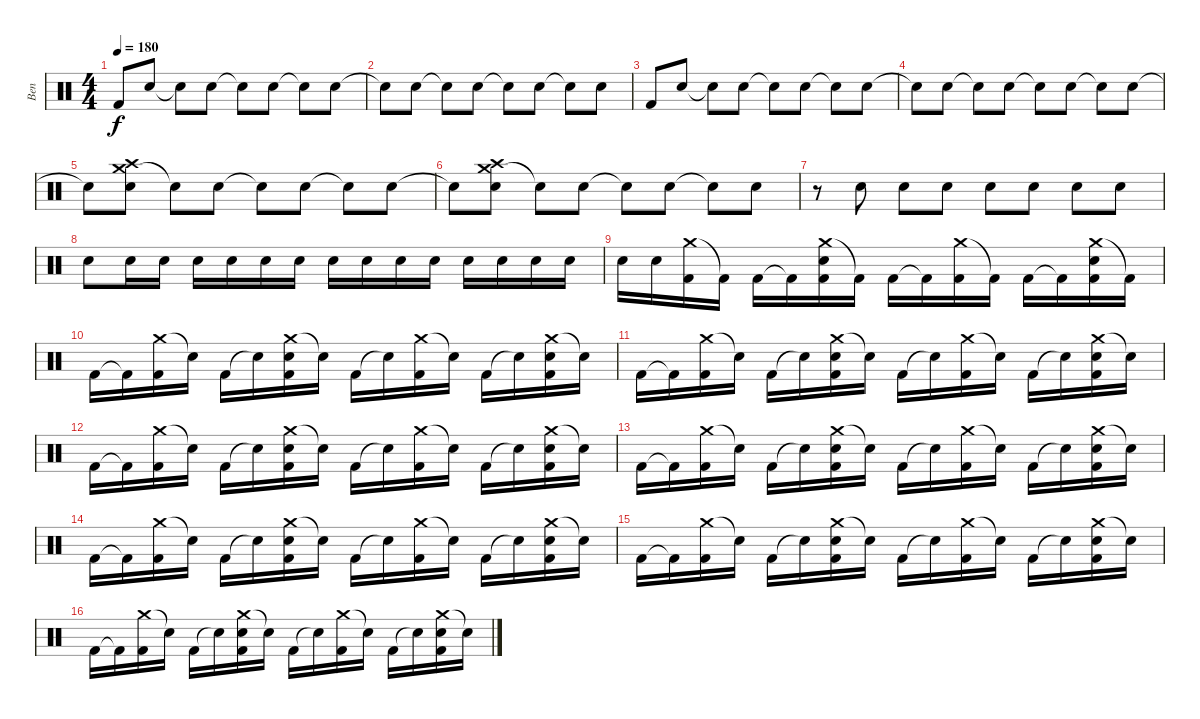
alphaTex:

\track ("Ben" "Ben") {instrument percussion}
\staff {score}
\articulation defaults
\ts (4 4)
\tempo 180
\clef neutral
\ks c "Kick (hit) 2".8{dy f} "Electric Snare (hit)".8 "Electric Snare (hit)"{t}.8 "Electric Snare (hit)".8 "Electric Snare (hit)"{t}.8 "Electric Snare (hit)".8 "Electric Snare (hit)"{t}.8 "Electric Snare (hit)".8
|
"Electric Snare (hit)"{t}.8 "Electric Snare (hit)".8 "Electric Snare (hit)"{t}.8 "Electric Snare (hit)".8 "Snare (hit)"{t}.8 "Electric Snare (hit)".8 "Snare (hit)"{t}.8 "Electric Snare (hit)".8 |
"Kick (hit) 2".8 "Electric Snare (hit)".8 "Electric Snare (hit)"{t}.8 "Electric Snare (hit)".8 "Electric Snare (hit)"{t}.8 "Electric Snare (hit)".8 "Electric Snare (hit)"{t}.8 "Electric Snare (hit)".8 |
"Electric Snare (hit)"{t}.8 "Electric Snare (hit)".8 "Electric Snare (hit)"{t}.8 "Electric Snare (hit)".8 "Snare (hit)"{t}.8 "Electric Snare (hit)".8 "Snare (hit)"{t}.8 "Electric Snare (hit)".8 |
"Electric Snare (hit)"{t}.8 ("Crash medium (hit)" "Crash high (hit)" "Electric Snare (hit)").8 "Electric Snare (hit)"{t}.8 "Electric Snare (hit)".8 "Snare (hit)"{t}.8 "Electric Snare (hit)".8 "Snare (hit)"{t}.8 "Electric Snare (hit)".8 |
"Electric Snare (hit)"{t}.8 ("Crash medium (hit)" "Crash high (hit)" "Electric Snare (hit)").8 "Electric Snare (hit)"{t}.8 "Electric Snare (hit)".8 "Snare (hit)"{t}.8 "Electric Snare (hit)".8 "Snare (hit)"{t}.8 "Electric Snare (hit)".8 |
r.8 "Electric Snare (hit)".8 "Electric Snare (hit)".8 "Electric Snare (hit)".8 "Electric Snare (hit)".8 "Electric Snare (hit)".8 "Electric Snare (hit)".8 "Electric Snare (hit)".8 |
"Electric Snare (hit)".8 "Electric Snare (hit)".16 "Electric Snare (hit)".16 "Electric Snare (hit)".16 "Electric Snare (hit)".16 "Electric Snare (hit)".16 "Electric Snare (hit)".16 "Electric Snare (hit)".16 "Electric Snare (hit)".16 "Electric Snare (hit)".16 "Electric Snare (hit)".16 "Electric Snare (hit)".16 "Electric Snare (hit)".16 "Electric Snare (hit)".16 "Electric Snare (hit)".16 |
"Electric Snare (hit)".16 "Electric Snare (hit)".16 ("Crash medium (hit)" "Kick (hit) 2").16 "Kick (hit) 2"{t}.16 "Kick (hit) 2".16 "Kick (hit) 2"{t}.16 ("Crash medium (hit)" "Electric Snare (hit)" "Kick (hit) 2").16 "Kick (hit) 2"{t}.16 "Kick (hit) 2".16 "Kick (hit) 2"{t}.16 ("Crash medium (hit)" "Kick (hit) 2").16 "Kick (hit) 2"{t}.16 "Kick (hit) 2".16 "Kick (hit) 2"{t}.16 ("Crash medium (hit)" "Electric Snare (hit)" "Kick (hit) 2").16 "Kick (hit) 2"{t}.16 |
"Kick (hit) 2".16 "Kick (hit) 2"{t}.16 ("Crash medium (hit)" "Kick (hit) 2").16 "Snare (hit)"{t}.16 "Kick (hit) 2".16 "Snare (hit)"{t}.16 ("Crash medium (hit)" "Electric Snare (hit)" "Kick (hit) 2").16 "Snare (hit)"{t}.16 "Kick (hit) 2".16 "Snare (hit)"{t}.16 ("Crash medium (hit)" "Kick (hit) 2").16 "Snare (hit)"{t}.16 "Kick (hit) 2".16 "Snare (hit)"{t}.16 ("Crash medium (hit)" "Electric Snare (hit)" "Kick (hit) 2").16 "Snare (hit)"{t}.16 |
"Kick (hit) 2".16 "Kick (hit) 2"{t}.16 ("Crash medium (hit)" "Kick (hit) 2").16 "Snare (hit)"{t}.16 "Kick (hit) 2".16 "Snare (hit)"{t}.16 ("Crash medium (hit)" "Electric Snare (hit)" "Kick (hit) 2").16 "Snare (hit)"{t}.16 "Kick (hit) 2".16 "Snare (hit)"{t}.16 ("Crash medium (hit)" "Kick (hit) 2").16 "Snare (hit)"{t}.16 "Kick (hit) 2".16 "Snare (hit)"{t}.16 ("Crash medium (hit)" "Electric Snare (hit)" "Kick (hit) 2").16 "Snare (hit)"{t}.16 |
"Kick (hit) 2".16 "Kick (hit) 2"{t}.16 ("Crash medium (hit)" "Kick (hit) 2").16 "Snare (hit)"{t}.16 "Kick (hit) 2".16 "Snare (hit)"{t}.16 ("Crash medium (hit)" "Electric Snare (hit)" "Kick (hit) 2").16 "Snare (hit)"{t}.16 "Kick (hit) 2".16 "Snare (hit)"{t}.16 ("Crash medium (hit)" "Kick (hit) 2").16 "Snare (hit)"{t}.16 "Kick (hit) 2".16 "Snare (hit)"{t}.16 ("Crash medium (hit)" "Electric Snare (hit)" "Kick (hit) 2").16 "Snare (hit)"{t}.16 |
"Kick (hit) 2".16 "Kick (hit) 2"{t}.16 ("Crash medium (hit)" "Kick (hit) 2").16 "Snare (hit)"{t}.16 "Kick (hit) 2".16 "Snare (hit)"{t}.16 ("Crash medium (hit)" "Electric Snare (hit)" "Kick (hit) 2").16 "Snare (hit)"{t}.16 "Kick (hit) 2".16 "Snare (hit)"{t}.16 ("Crash medium (hit)" "Kick (hit) 2").16 "Snare (hit)"{t}.16 "Kick (hit) 2".16 "Snare (hit)"{t}.16 ("Crash medium (hit)" "Electric Snare (hit)" "Kick (hit) 2").16 "Snare (hit)"{t}.16 |
"Kick (hit) 2".16 "Kick (hit) 2"{t}.16 ("Crash medium (hit)" "Kick (hit) 2").16 "Snare (hit)"{t}.16 "Kick (hit) 2".16 "Snare (hit)"{t}.16 ("Crash medium (hit)" "Electric Snare (hit)" "Kick (hit) 2").16 "Snare (hit)"{t}.16 "Kick (hit) 2".16 "Snare (hit)"{t}.16 ("Crash medium (hit)" "Kick (hit) 2").16 "Snare (hit)"{t}.16 "Kick (hit) 2".16 "Snare (hit)"{t}.16 ("Crash medium (hit)" "Electric Snare (hit)" "Kick (hit) 2").16 "Snare (hit)"{t}.16 |
"Kick (hit) 2".16 "Kick (hit) 2"{t}.16 ("Crash medium (hit)" "Kick (hit) 2").16 "Snare (hit)"{t}.16 "Kick (hit) 2".16 "Snare (hit)"{t}.16 ("Crash medium (hit)" "Electric Snare (hit)" "Kick (hit) 2").16 "Snare (hit)"{t}.16 "Kick (hit) 2".16 "Snare (hit)"{t}.16 ("Crash medium (hit)" "Kick (hit) 2").16 "Snare (hit)"{t}.16 "Kick (hit) 2".16 "Snare (hit)"{t}.16 ("Crash medium (hit)" "Electric Snare (hit)" "Kick (hit) 2").16 "Snare (hit)"{t}.16 |
"Kick (hit) 2".16 "Kick (hit) 2"{t}.16 ("Crash medium (hit)" "Kick (hit) 2").16 "Snare (hit)"{t}.16 "Kick (hit) 2".16 "Snare (hit)"{t}.16 ("Crash medium (hit)" "Electric Snare (hit)" "Kick (hit) 2").16 "Snare (hit)"{t}.16 "Kick (hit) 2".16 "Snare (hit)"{t}.16 ("Crash medium (hit)" "Kick (hit) 2").16 "Snare (hit)"{t}.16 "Kick (hit) 2".16 "Snare (hit)"{t}.16 ("Crash medium (hit)" "Electric Snare (hit)" "Kick (hit) 2").16 "Snare (hit)"{t}.16
